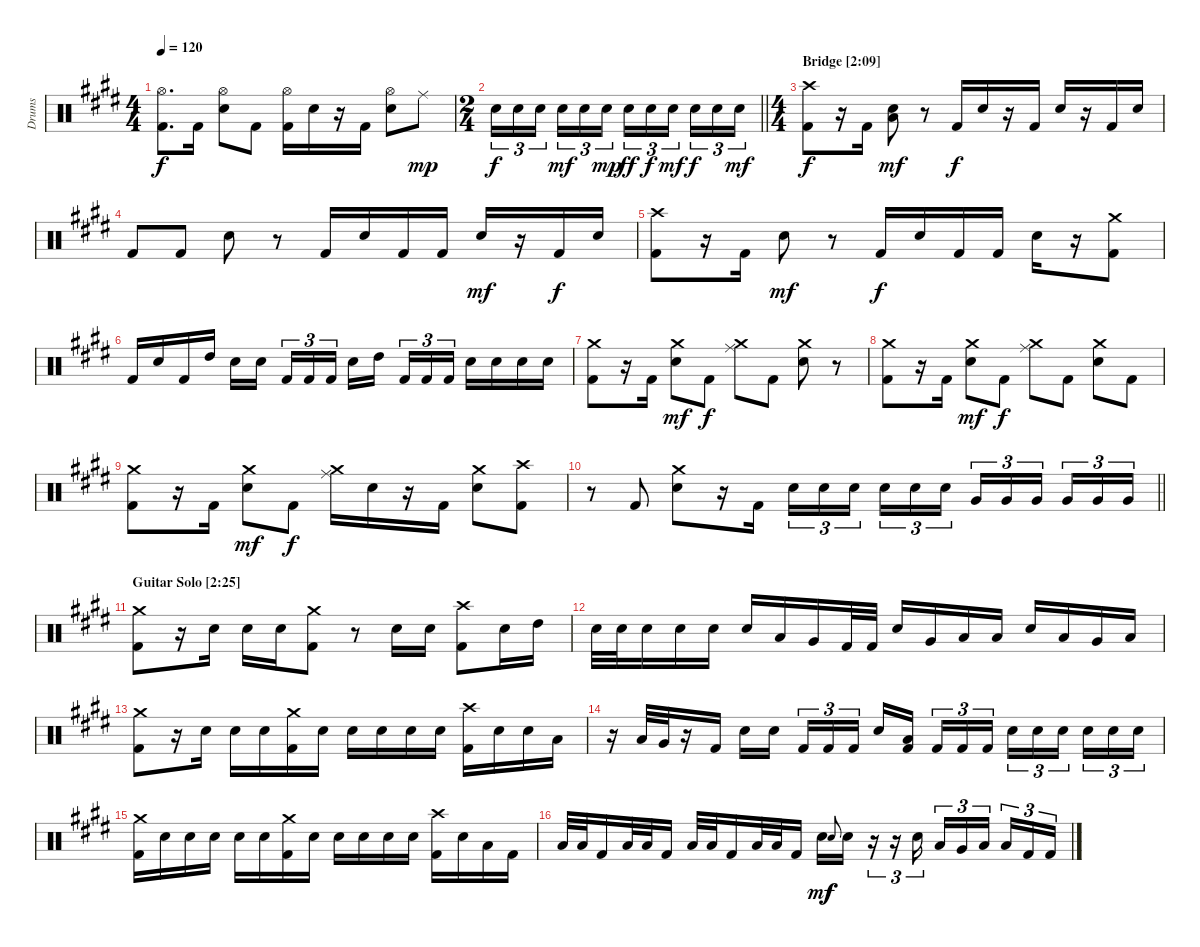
\track ("Drums" "Drums") {instrument percussion}
\staff {score}
\articulation defaults
\ts (4 4)
\tempo 120
\clef neutral
\ks c#minor
("Hi-Hat (open)" "Kick (hit) 2").8{d dy f} "Kick (hit) 2".16 ("Hi-Hat (open)" "Snare (hit) 2").8 "Kick (hit) 2".8 ("Hi-Hat (open)" "Kick (hit) 2").16 "Snare (hit) 2".16 r.16 "Kick (hit) 2".16 ("Hi-Hat (open)" "Snare (hit) 2").8 "Ride (middle)".8{dy mp} |
\ts (2 4)
\barLineRight lightlight "Snare (hit) 2".16{tu (3 2) dy f} "Snare (hit) 2".16{tu (3 2)} "Snare (hit) 2".16{tu (3 2) beam splitsecondary} "Snare (hit) 2".16{tu (3 2) dy mf} "Snare (hit) 2".16{tu (3 2)} "Snare (hit) 2".16{tu (3 2) dy mp} "Snare (hit) 2".16{tu (3 2) dy ff} "Snare (hit) 2".16{tu (3 2) dy f} "Snare (hit) 2".16{tu (3 2) dy mf beam splitsecondary} "Snare (hit) 2".16{tu (3 2) dy f} "Snare (hit) 2".16{tu (3 2)} "Snare (hit) 2".16{tu (3 2) dy mf}
|
\ts (4 4)
\section ("" "Bridge [2:09]")
("Crash high (hit)" "Kick (hit) 2").8{dy f} r.16 "Kick (hit) 2".16 ("Low Tom (hit)" "Snare (hit) 2").8{dy mf} r.8 "Kick (hit) 2".16{dy f} "Snare (hit) 2".16 r.16 "Kick (hit) 2".16 "Snare (hit) 2".16 r.16 "Kick (hit) 2".16 "Snare (hit) 2".16 |
"Kick (hit) 2".8 "Kick (hit) 2".8 "Snare (hit) 2".8 r.8 "Kick (hit) 2".16 "Snare (hit) 2".16 "Kick (hit) 2".16 "Kick (hit) 2".16 "Snare (hit) 2".16{dy mf} r.16 "Kick (hit) 2".16{dy f} "Snare (hit) 2".16 |
("Crash high (hit)" "Kick (hit) 2").8 r.16 "Kick (hit) 2".16 "Snare (hit) 2".8{dy mf} r.8 "Kick (hit) 2".16{dy f} "Snare (hit) 2".16 "Kick (hit) 2".16 "Kick (hit) 2".16 "Snare (hit) 2".16 r.16 ("Crash medium (hit)" "Kick (hit) 2").8 |
"Kick (hit) 2".16 "Snare (hit) 2".16 "Kick (hit) 2".16 "High Tom (hit)".16 "Snare (hit) 2".16 "Snare (hit) 2".16{beam splitsecondary} "Kick (hit) 2".16{tu (3 2)} "Kick (hit) 2".16{tu (3 2)} "Kick (hit) 2".16{tu (3 2)} "Snare (hit) 2".16 "High Tom (hit)".16{beam splitsecondary} "Kick (hit) 2".16{tu (3 2)} "Kick (hit) 2".16{tu (3 2)} "Kick (hit) 2".16{tu (3 2)} "Snare (hit) 2".16 "Snare (hit) 2".16 "Snare (hit) 2".16 "Snare (hit) 2".16 |
("Crash medium (hit)" "Kick (hit) 2").8 r.16 "Kick (hit) 2".16 ("Crash medium (hit)" "Snare (hit) 2").8{dy mf} "Kick (hit) 2".8{dy f} ("Crash medium (hit)" "Ride (middle)").8 "Kick (hit) 2".8 ("Crash medium (hit)" "Snare (hit) 2").8 r.8 |
("Crash medium (hit)" "Kick (hit) 2").8 r.16 "Kick (hit) 2".16 ("Crash medium (hit)" "Snare (hit) 2").8{dy mf} "Kick (hit) 2".8{dy f} ("Crash medium (hit)" "Ride (middle)").8 "Kick (hit) 2".8 ("Crash medium (hit)" "Snare (hit) 2").8 "Kick (hit) 2".8 |
("Crash medium (hit)" "Kick (hit) 2").8 r.16 "Kick (hit) 2".16 ("Crash medium (hit)" "Snare (hit) 2").8{dy mf} "Kick (hit) 2".8{dy f} ("Crash medium (hit)" "Ride (middle)").16 "Snare (hit) 2".16 r.16 "Kick (hit) 2".16 ("Crash medium (hit)" "Snare (hit) 2").8 ("Crash high (hit)" "Kick (hit) 2").8 |
\barLineRight lightlight
r.8 "Kick (hit) 2".8 ("Crash medium (hit)" "Snare (hit) 2").8 r.16 "Kick (hit) 2".16 "Snare (hit) 2".16{tu (3 2)} "Snare (hit) 2".16{tu (3 2)} "Snare (hit) 2".16{tu (3 2) beam splitsecondary} "Snare (hit) 2".16{tu (3 2)} "Snare (hit) 2".16{tu (3 2)} "Snare (hit) 2".16{tu (3 2)} "Very Low Tom (hit)".16{tu (3 2)} "Very Low Tom (hit)".16{tu (3 2)} "Very Low Tom (hit)".16{tu (3 2) beam splitsecondary} "Very Low Tom (hit)".16{tu (3 2)} "Very Low Tom (hit)".16{tu (3 2)} "Very Low Tom (hit)".16{tu (3 2)} |
\section ("" "Guitar Solo [2:25]")
("Crash medium (hit)" "Kick (hit) 2").8 r.16 "Snare (hit) 2".16 "Snare (hit) 2".16 "Snare (hit) 2".16 ("Crash medium (hit)" "Kick (hit) 2").8 r.8 "Snare (hit) 2".16 "Snare (hit) 2".16 ("Crash high (hit)" "Kick (hit) 2").8 "Snare (hit) 2".16 "High Tom (hit)".16 |
"Snare (hit) 2".32 "Snare (hit) 2".32 "Snare (hit) 2".16 "Snare (hit) 2".16 "Snare (hit) 2".16 "Snare (hit) 2".16 "Low Tom (hit)".16 "Very Low Tom (hit)".16 "Kick (hit) 2".32 "Kick (hit) 2".32 "Snare (hit) 2".16 "Very Low Tom (hit)".16 "Low Floor Tom (hit)".16 "Low Floor Tom (hit)".16 "Snare (hit) 2".16 "Low Tom (hit)".16 "Very Low Tom (hit)".16 "Low Floor Tom (hit)".16 |
("Crash medium (hit)" "Kick (hit) 2").8 r.16 "Snare (hit) 2".16 "Snare (hit) 2".16 "Snare (hit) 2".16 ("Crash medium (hit)" "Kick (hit) 2").16 "Snare (hit) 2".16 "Snare (hit) 2".16 "Snare (hit) 2".16 "Snare (hit) 2".16 "Snare (hit) 2".16 ("Crash high (hit)" "Kick (hit) 2").16 "Snare (hit) 2".16 "Snare (hit) 2".16 "Low Tom (hit)".16 |
r.16 "Low Tom (hit)".32 "Very Low Tom (hit)".32 r.16 "Kick (hit) 2".16 "Snare (hit) 2".16 "Snare (hit) 2".16{beam splitsecondary} "Kick (hit) 2".16{tu (3 2)} "Kick (hit) 2".16{tu (3 2)} "Kick (hit) 2".16{tu (3 2)} "Snare (hit) 2".16 ("Low Floor Tom (hit)" "Kick (hit) 2").16{beam splitsecondary} "Kick (hit) 2".16{tu (3 2)} "Kick (hit) 2".16{tu (3 2)} "Kick (hit) 2".16{tu (3 2)} "Snare (hit) 2".16{tu (3 2)} "Snare (hit) 2".16{tu (3 2)} "Snare (hit) 2".16{tu (3 2) beam splitsecondary} "Snare (hit) 2".16{tu (3 2)} "Snare (hit) 2".16{tu (3 2)} "Snare (hit) 2".16{tu (3 2)} |
("Crash medium (hit)" "Kick (hit) 2").16 "Snare (hit) 2".16 "Snare (hit) 2".16 "Snare (hit) 2".16 "Snare (hit) 2".16 "Snare (hit) 2".16 ("Crash medium (hit)" "Kick (hit) 2").16 "Snare (hit) 2".16 "Snare (hit) 2".16 "Snare (hit) 2".16 "Snare (hit) 2".16 "Snare (hit) 2".16 ("Crash high (hit)" "Kick (hit) 2").16 "Snare (hit) 2".16 "Low Tom (hit)".16 "Kick (hit) 2".16 |
"Low Tom (hit)".32 "Low Floor Tom (hit)".32 "Kick (hit) 2".16 "Low Tom (hit)".32 "Low Floor Tom (hit)".32 "Kick (hit) 2".16 "Low Tom (hit)".32 "Low Floor Tom (hit)".32 "Kick (hit) 2".16 "Low Tom (hit)".32 "Low Floor Tom (hit)".32 "Kick (hit) 2".16 "Snare (hit) 2".16{dy mf} "Snare (hit) 2".8{gr onbeat dy f} "Snare (hit) 2".16 r.16{tu (3 2)} r.16{tu (3 2)} "Snare (hit) 2".16{tu (3 2)} "Low Tom (hit)".16{tu (3 2)} "Very Low Tom (hit)".16{tu (3 2)} "Low Floor Tom (hit)".16{tu (3 2) beam splitsecondary} "Low Floor Tom (hit)".16{tu (3 2)} "Kick (hit) 2".16{tu (3 2)} "Kick (hit) 2".16{tu (3 2)}
